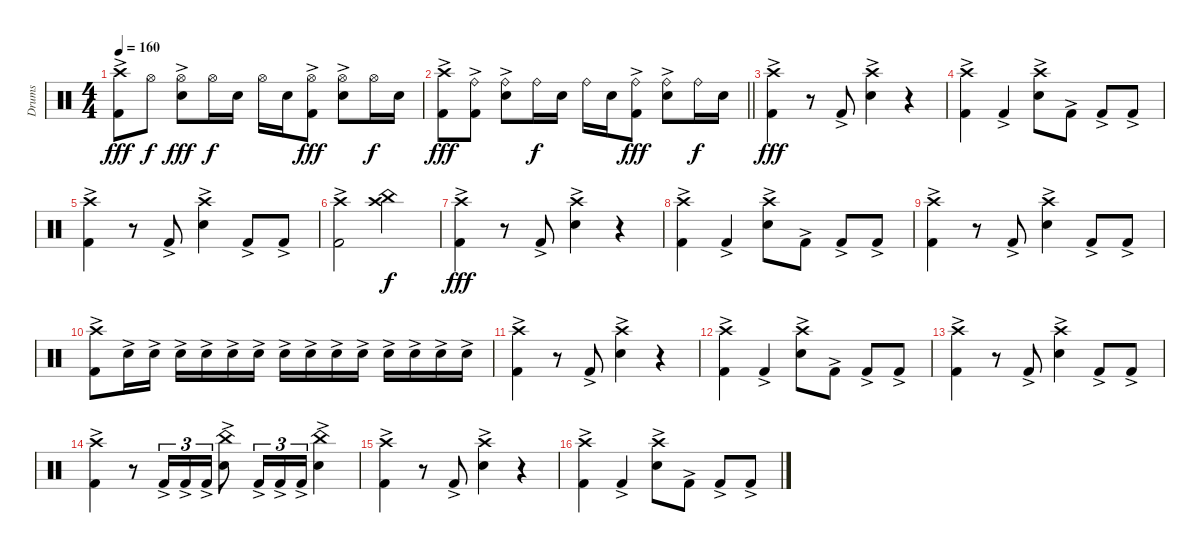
\track ("Drums" "Drums") {instrument percussion}
\staff {score}
\articulation defaults
\ts (4 4)
\tempo 160
\clef neutral
\ks c
("Crash high (hit)" "Kick (hit) 2"{ac}).8{dy fff} "Hi-Hat (open)".8{dy f} ("Hi-Hat (open)" "Snare (hit) 2"{ac}).8{dy fff} "Hi-Hat (open)".16{dy f} "Snare (hit) 2".16 "Hi-Hat (open)".16 "Snare (hit) 2".16 ("Hi-Hat (open)" "Kick (hit) 2"{ac}).8{dy fff} ("Hi-Hat (open)" "Snare (hit) 2"{ac}).8 "Hi-Hat (open)".16{dy f} "Snare (hit) 2".16 |
\barLineRight lightlight
("Crash high (hit)" "Kick (hit) 2"{ac}).8{dy fff} ("Ride (bell)" "Kick (hit) 2"{ac}).8 ("Ride (bell)" "Snare (hit) 2"{ac}).8 "Ride (bell)".16{dy f} "Snare (hit) 2".16 "Ride (bell)".16 "Snare (hit) 2".16 ("Ride (bell)" "Kick (hit) 2"{ac}).8{dy fff} ("Ride (bell)" "Snare (hit) 2"{ac}).8 "Ride (bell)".16{dy f} "Snare (hit) 2".16 |
("Crash high (hit)" "Kick (hit) 2"{ac}).4{dy fff} r.8 "Kick (hit) 2"{ac}.8 ("Crash high (hit)" "Snare (hit) 2"{ac}).4 r.4 |
("Crash high (hit)" "Kick (hit) 2"{ac}).4 "Kick (hit) 2"{ac}.4 ("Crash high (hit)" "Snare (hit) 2"{ac}).8 "Kick (hit) 2"{ac}.8 "Kick (hit) 2"{ac}.8 "Kick (hit) 2"{ac}.8 |
("Crash high (hit)" "Kick (hit) 2"{ac}).4 r.8 "Kick (hit) 2"{ac}.8 ("Crash high (hit)" "Snare (hit) 2"{ac}).4 "Kick (hit) 2"{ac}.8 "Kick (hit) 2"{ac}.8 |
("Crash high (hit)" "Kick (hit) 2"{ac}).2 ("China (hit)" "Crash high (hit)").2{dy f} |
("Crash high (hit)" "Kick (hit) 2"{ac}).4{dy fff} r.8 "Kick (hit) 2"{ac}.8 ("Crash high (hit)" "Snare (hit) 2"{ac}).4 r.4 |
("Crash high (hit)" "Kick (hit) 2"{ac}).4 "Kick (hit) 2"{ac}.4 ("Crash high (hit)" "Snare (hit) 2"{ac}).8 "Kick (hit) 2"{ac}.8 "Kick (hit) 2"{ac}.8 "Kick (hit) 2"{ac}.8 |
("Crash high (hit)" "Kick (hit) 2"{ac}).4 r.8 "Kick (hit) 2"{ac}.8 ("Crash high (hit)" "Snare (hit) 2"{ac}).4 "Kick (hit) 2"{ac}.8 "Kick (hit) 2"{ac}.8 |
("Crash high (hit)" "Kick (hit) 2"{ac}).8 "Snare (hit) 2"{ac}.16 "Snare (hit) 2"{ac}.16 "Snare (hit) 2"{ac}.16 "Snare (hit) 2"{ac}.16 "Snare (hit) 2"{ac}.16 "Snare (hit) 2"{ac}.16 "Snare (hit) 2"{ac}.16 "Snare (hit) 2"{ac}.16 "Snare (hit) 2"{ac}.16 "Snare (hit) 2"{ac}.16 "Snare (hit) 2"{ac}.16 "Snare (hit) 2"{ac}.16 "Snare (hit) 2"{ac}.16 "Snare (hit) 2"{ac}.16 |
("Crash high (hit)" "Kick (hit) 2"{ac}).4 r.8 "Kick (hit) 2"{ac}.8 ("Crash high (hit)" "Snare (hit) 2"{ac}).4 r.4 |
("Crash high (hit)" "Kick (hit) 2"{ac}).4 "Kick (hit) 2"{ac}.4 ("Crash high (hit)" "Snare (hit) 2"{ac}).8 "Kick (hit) 2"{ac}.8 "Kick (hit) 2"{ac}.8 "Kick (hit) 2"{ac}.8 |
("Crash high (hit)" "Kick (hit) 2"{ac}).4 r.8 "Kick (hit) 2"{ac}.8 ("Crash high (hit)" "Snare (hit) 2"{ac}).4 "Kick (hit) 2"{ac}.8 "Kick (hit) 2"{ac}.8 |
("Crash high (hit)" "Kick (hit) 2"{ac}).4 r.8 "Kick (hit) 2"{ac}.16{tu (3 2)} "Kick (hit) 2"{ac}.16{tu (3 2)} "Kick (hit) 2"{ac}.16{tu (3 2)} ("China (hit)"{ac} "Snare (hit) 2"{ac}).8 "Kick (hit) 2"{ac}.16{tu (3 2)} "Kick (hit) 2"{ac}.16{tu (3 2)} "Kick (hit) 2"{ac}.16{tu (3 2)} ("China (hit)"{ac} "Snare (hit) 2"{ac}).4 |
("Crash high (hit)" "Kick (hit) 2"{ac}).4 r.8 "Kick (hit) 2"{ac}.8 ("Crash high (hit)" "Snare (hit) 2"{ac}).4 r.4 |
("Crash high (hit)" "Kick (hit) 2"{ac}).4 "Kick (hit) 2"{ac}.4 ("Crash high (hit)" "Snare (hit) 2"{ac}).8 "Kick (hit) 2"{ac}.8 "Kick (hit) 2"{ac}.8 "Kick (hit) 2"{ac}.8
